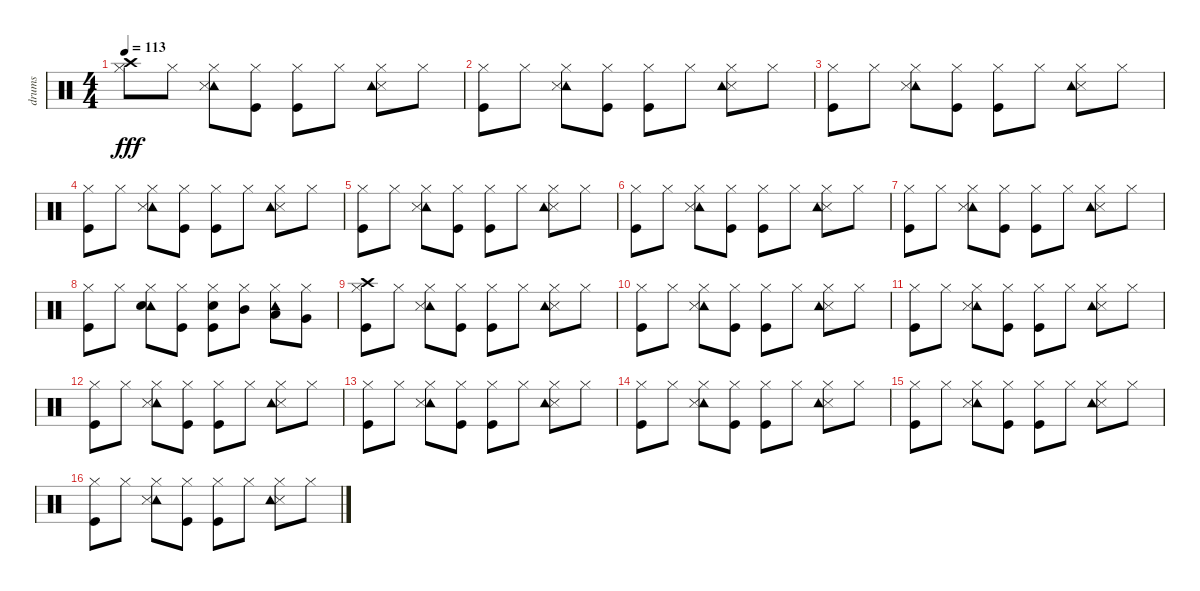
\track ("drums" "drums") {instrument percussion}
\staff {score}
\articulation defaults
\ts (4 4)
\tempo 113
\clef neutral
\ks c
("Crash high (hit)" "Hi-Hat (closed)").8{dy fff} "Hi-Hat (closed)".8 ("Tambourine (hit)" "Snare (side stick) 3" "Hi-Hat (closed)").8 ("Kick (hit)" "Hi-Hat (closed)").8 ("Kick (hit)" "Hi-Hat (closed)").8 "Hi-Hat (closed)".8 ("Snare (side stick) 3" "Hi-Hat (closed)" "Tambourine (hit)").8 "Hi-Hat (closed)".8 |
("Kick (hit)" "Hi-Hat (closed)").8 "Hi-Hat (closed)".8 ("Tambourine (hit)" "Hi-Hat (closed)" "Snare (side stick) 3").8 ("Kick (hit)" "Hi-Hat (closed)").8 ("Kick (hit)" "Hi-Hat (closed)").8 "Hi-Hat (closed)".8 ("Snare (side stick) 3" "Hi-Hat (closed)" "Tambourine (hit)").8 "Hi-Hat (closed)".8 |
("Kick (hit)" "Hi-Hat (closed)").8 "Hi-Hat (closed)".8 ("Tambourine (hit)" "Snare (side stick) 3" "Hi-Hat (closed)").8 ("Kick (hit)" "Hi-Hat (closed)").8 ("Kick (hit)" "Hi-Hat (closed)").8 "Hi-Hat (closed)".8 ("Hi-Hat (closed)" "Snare (side stick) 3" "Tambourine (hit)").8 "Hi-Hat (closed)".8 |
("Kick (hit)" "Hi-Hat (closed)").8 "Hi-Hat (closed)".8 ("Tambourine (hit)" "Hi-Hat (closed)" "Snare (side stick) 3").8 ("Kick (hit)" "Hi-Hat (closed)").8 ("Kick (hit)" "Hi-Hat (closed)").8 "Hi-Hat (closed)".8 ("Hi-Hat (closed)" "Snare (side stick) 3" "Tambourine (hit)").8 "Hi-Hat (closed)".8 |
("Kick (hit)" "Hi-Hat (closed)").8 "Hi-Hat (closed)".8 ("Tambourine (hit)" "Snare (side stick) 3" "Hi-Hat (closed)").8 ("Kick (hit)" "Hi-Hat (closed)").8 ("Kick (hit)" "Hi-Hat (closed)").8 "Hi-Hat (closed)".8 ("Snare (side stick) 3" "Hi-Hat (closed)" "Tambourine (hit)").8 "Hi-Hat (closed)".8 |
("Kick (hit)" "Hi-Hat (closed)").8 "Hi-Hat (closed)".8 ("Tambourine (hit)" "Hi-Hat (closed)" "Snare (side stick) 3").8 ("Kick (hit)" "Hi-Hat (closed)").8 ("Kick (hit)" "Hi-Hat (closed)").8 "Hi-Hat (closed)".8 ("Snare (side stick) 3" "Hi-Hat (closed)" "Tambourine (hit)").8 "Hi-Hat (closed)".8 |
("Kick (hit)" "Hi-Hat (closed)").8 "Hi-Hat (closed)".8 ("Tambourine (hit)" "Snare (side stick) 3" "Hi-Hat (closed)").8 ("Kick (hit)" "Hi-Hat (closed)").8 ("Kick (hit)" "Hi-Hat (closed)").8 "Hi-Hat (closed)".8 ("Hi-Hat (closed)" "Snare (side stick) 3" "Tambourine (hit)").8 "Hi-Hat (closed)".8 |
("Kick (hit)" "Hi-Hat (closed)").8 "Hi-Hat (closed)".8 ("Tambourine (hit)" "Electric Snare (hit)" "Hi-Hat (closed)").8 ("Kick (hit)" "Hi-Hat (closed)").8 ("Electric Snare (hit)" "Kick (hit)" "Hi-Hat (closed)").8 ("Mid Tom (hit)" "Hi-Hat (closed)").8 ("Low Tom (hit)" "Hi-Hat (closed)" "Tambourine (hit)").8 ("Very Low Tom (hit)" "Hi-Hat (closed)").8 |
("Crash high (hit)" "Kick (hit)" "Hi-Hat (closed)").8 "Hi-Hat (closed)".8 ("Tambourine (hit)" "Snare (side stick) 3" "Hi-Hat (closed)").8 ("Kick (hit)" "Hi-Hat (closed)").8 ("Kick (hit)" "Hi-Hat (closed)").8 "Hi-Hat (closed)".8 ("Snare (side stick) 3" "Hi-Hat (closed)" "Tambourine (hit)").8 "Hi-Hat (closed)".8 |
("Kick (hit)" "Hi-Hat (closed)").8 "Hi-Hat (closed)".8 ("Tambourine (hit)" "Hi-Hat (closed)" "Snare (side stick) 3").8 ("Kick (hit)" "Hi-Hat (closed)").8 ("Kick (hit)" "Hi-Hat (closed)").8 "Hi-Hat (closed)".8 ("Snare (side stick) 3" "Hi-Hat (closed)" "Tambourine (hit)").8 "Hi-Hat (closed)".8 |
("Kick (hit)" "Hi-Hat (closed)").8 "Hi-Hat (closed)".8 ("Tambourine (hit)" "Snare (side stick) 3" "Hi-Hat (closed)").8 ("Kick (hit)" "Hi-Hat (closed)").8 ("Kick (hit)" "Hi-Hat (closed)").8 "Hi-Hat (closed)".8 ("Hi-Hat (closed)" "Snare (side stick) 3" "Tambourine (hit)").8 "Hi-Hat (closed)".8 |
("Kick (hit)" "Hi-Hat (closed)").8 "Hi-Hat (closed)".8 ("Tambourine (hit)" "Hi-Hat (closed)" "Snare (side stick) 3").8 ("Kick (hit)" "Hi-Hat (closed)").8 ("Kick (hit)" "Hi-Hat (closed)").8 "Hi-Hat (closed)".8 ("Hi-Hat (closed)" "Snare (side stick) 3" "Tambourine (hit)").8 "Hi-Hat (closed)".8 |
("Kick (hit)" "Hi-Hat (closed)").8 "Hi-Hat (closed)".8 ("Tambourine (hit)" "Snare (side stick) 3" "Hi-Hat (closed)").8 ("Kick (hit)" "Hi-Hat (closed)").8 ("Kick (hit)" "Hi-Hat (closed)").8 "Hi-Hat (closed)".8 ("Snare (side stick) 3" "Hi-Hat (closed)" "Tambourine (hit)").8 "Hi-Hat (closed)".8 |
("Kick (hit)" "Hi-Hat (closed)").8 "Hi-Hat (closed)".8 ("Tambourine (hit)" "Hi-Hat (closed)" "Snare (side stick) 3").8 ("Kick (hit)" "Hi-Hat (closed)").8 ("Kick (hit)" "Hi-Hat (closed)").8 "Hi-Hat (closed)".8 ("Snare (side stick) 3" "Hi-Hat (closed)" "Tambourine (hit)").8 "Hi-Hat (closed)".8 |
("Kick (hit)" "Hi-Hat (closed)").8 "Hi-Hat (closed)".8 ("Tambourine (hit)" "Snare (side stick) 3" "Hi-Hat (closed)").8 ("Kick (hit)" "Hi-Hat (closed)").8 ("Kick (hit)" "Hi-Hat (closed)").8 "Hi-Hat (closed)".8 ("Hi-Hat (closed)" "Snare (side stick) 3" "Tambourine (hit)").8 "Hi-Hat (closed)".8 |
("Kick (hit)" "Hi-Hat (closed)").8 "Hi-Hat (closed)".8 ("Tambourine (hit)" "Hi-Hat (closed)" "Snare (side stick) 3").8 ("Kick (hit)" "Hi-Hat (closed)").8 ("Kick (hit)" "Hi-Hat (closed)").8 "Hi-Hat (closed)".8 ("Hi-Hat (closed)" "Snare (side stick) 3" "Tambourine (hit)").8 "Hi-Hat (closed)".8
